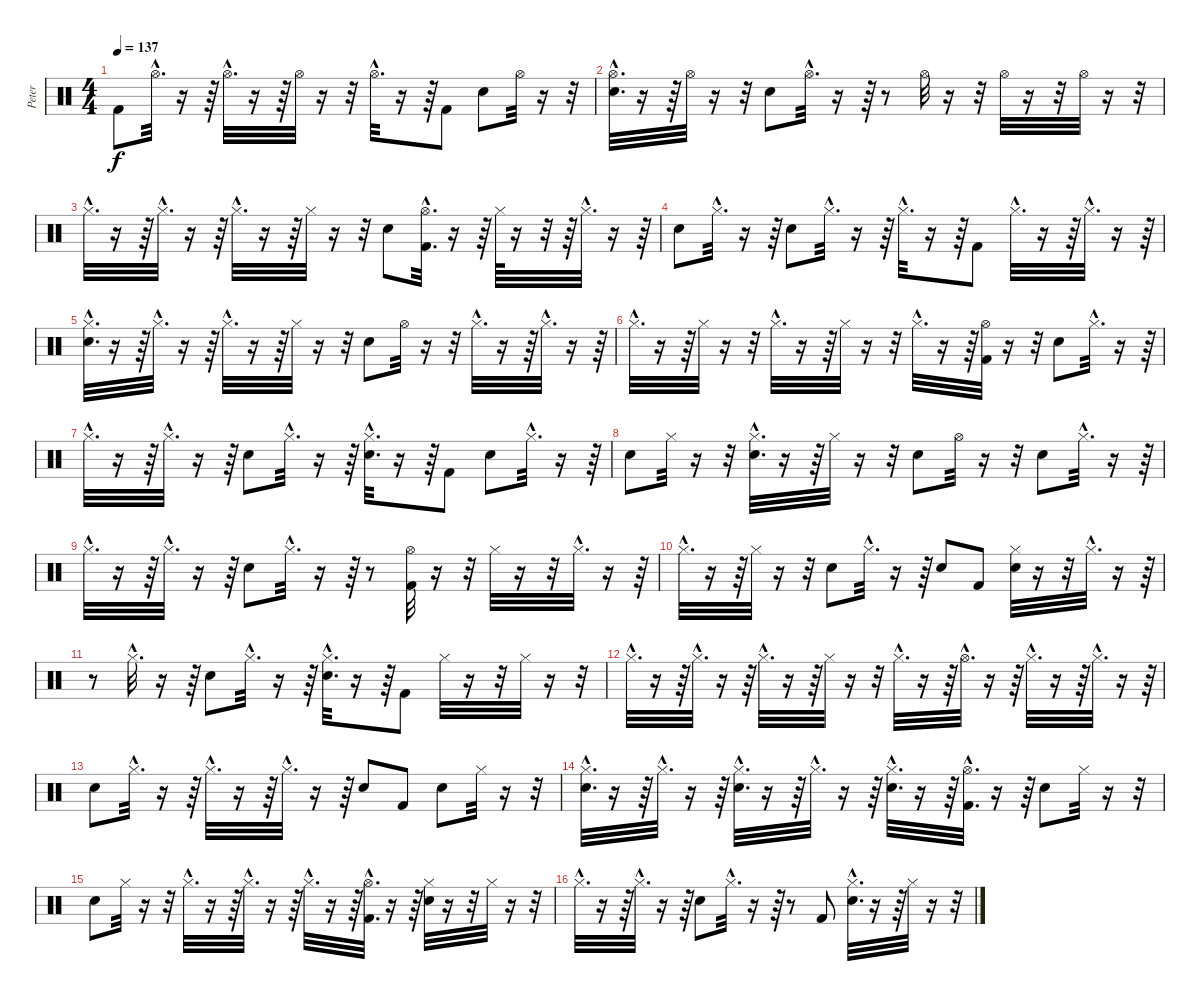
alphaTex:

\track ("Peter" "Peter") {instrument percussion}
\staff {score}
\articulation defaults
\ts (4 4)
\tempo 137
\clef neutral
\ks c "Kick (hit) 2".8{dy f} "Hi-Hat (open)"{hac}.32{d}
r.16 r.64 "Hi-Hat (open)"{hac}.32{d} r.16 r.64 "Hi-Hat (open)".32 r.16 r.32 "Hi-Hat (open)"{hac}.32{d} r.16 r.64 "Kick (hit) 2".8 "Electric Snare (hit)".8 "Hi-Hat (open)".32 r.16 r.32 |
("Electric Snare (hit)"{hac} "Hi-Hat (open)"{hac}).32{d} r.16 r.64 "Hi-Hat (open)".32 r.16 r.32 "Electric Snare (hit)".8 "Hi-Hat (open)"{hac}.32{d} r.16 r.64 r.8 "Hi-Hat (open)".32 r.16 r.32 "Hi-Hat (open)".32 r.16 r.32 "Hi-Hat (open)".32 r.16 r.32 |
"Hi-Hat (closed)"{hac}.32{d} r.16 r.64 "Hi-Hat (closed)"{hac}.32{d} r.16 r.64 "Hi-Hat (closed)"{hac}.32{d} r.16 r.64 "Hi-Hat (closed)".32 r.16 r.32 "Electric Snare (hit)".8 ("Kick (hit) 2"{hac} "Hi-Hat (open)"{hac}).32{d} r.16 r.64 "Hi-Hat (closed)".64 r.16 r.32 r.64 "Hi-Hat (closed)"{hac}.32{d} r.16 r.64 |
"Electric Snare (hit)".8 "Hi-Hat (closed)"{hac}.32{d} r.16 r.64 "Electric Snare (hit)".8 "Hi-Hat (closed)"{hac}.32{d} r.16 r.64 "Hi-Hat (closed)"{hac}.32{d} r.16 r.64 "Kick (hit) 2".8 "Hi-Hat (closed)"{hac}.32{d} r.16 r.64 "Hi-Hat (closed)"{hac}.32{d} r.16 r.64 |
("Electric Snare (hit)"{hac} "Hi-Hat (closed)"{hac}).32{d} r.16 r.64 "Hi-Hat (closed)"{hac}.32{d} r.16 r.64 "Hi-Hat (closed)"{hac}.32{d} r.16 r.64 "Hi-Hat (closed)".32 r.16 r.32 "Electric Snare (hit)".8 "Hi-Hat (open)".32 r.16 r.32 "Hi-Hat (closed)"{hac}.32{d} r.16 r.64 "Hi-Hat (closed)"{hac}.32{d} r.16 r.64 |
"Hi-Hat (closed)"{hac}.32{d} r.16 r.64 "Hi-Hat (closed)".32 r.16 r.32 "Hi-Hat (closed)"{hac}.32{d} r.16 r.64 "Hi-Hat (closed)".32 r.16 r.32 "Hi-Hat (closed)"{hac}.32{d} r.16 r.64 ("Kick (hit) 2" "Hi-Hat (open)").32 r.16 r.32 "Electric Snare (hit)".8 "Hi-Hat (closed)"{hac}.32{d} r.16 r.64 |
"Hi-Hat (closed)"{hac}.32{d} r.16 r.64 "Hi-Hat (closed)"{hac}.32{d} r.16 r.64 "Electric Snare (hit)".8 "Hi-Hat (closed)"{hac}.32{d} r.16 r.64 ("Electric Snare (hit)"{hac} "Hi-Hat (closed)"{hac}).32{d} r.16 r.64 "Kick (hit) 2".8 "Electric Snare (hit)".8 "Hi-Hat (closed)"{hac}.32{d} r.16 r.64 |
"Electric Snare (hit)".8 "Hi-Hat (closed)".32 r.16 r.32 ("Electric Snare (hit)"{hac} "Hi-Hat (closed)"{hac}).32{d} r.16 r.64 "Hi-Hat (closed)".32 r.16 r.32 "Electric Snare (hit)".8 "Hi-Hat (open)".32 r.16 r.32 "Electric Snare (hit)".8 "Hi-Hat (closed)"{hac}.32{d} r.16 r.64 |
"Hi-Hat (closed)"{hac}.32{d} r.16 r.64 "Hi-Hat (closed)"{hac}.32{d} r.16 r.64 "Electric Snare (hit)".8 "Hi-Hat (closed)"{hac}.32{d} r.16 r.64 r.8 ("Kick (hit) 2" "Hi-Hat (open)").32 r.16 r.32 "Hi-Hat (closed)".32 r.16 r.32 "Hi-Hat (closed)"{hac}.32{d} r.16 r.64 |
"Hi-Hat (closed)"{hac}.32{d} r.16 r.64 "Hi-Hat (closed)".32 r.16 r.32 "Electric Snare (hit)".8 "Hi-Hat (closed)"{hac}.32{d} r.16 r.64 "Electric Snare (hit)".8 "Kick (hit) 2".8 ("Electric Snare (hit)" "Hi-Hat (closed)").32 r.16 r.32 "Hi-Hat (closed)"{hac}.32{d} r.16 r.64 |
r.8 "Hi-Hat (closed)"{hac}.32{d} r.16 r.64 "Electric Snare (hit)".8 "Hi-Hat (closed)"{hac}.32{d} r.16 r.64 ("Electric Snare (hit)"{hac} "Hi-Hat (closed)"{hac}).32{d} r.16 r.64 "Kick (hit) 2".8 "Hi-Hat (closed)".32 r.16 r.32 "Hi-Hat (closed)".32 r.16 r.32 |
"Hi-Hat (closed)"{hac}.32{d} r.16 r.64 "Hi-Hat (closed)"{hac}.32{d} r.16 r.64 "Hi-Hat (closed)"{hac}.32{d} r.16 r.64 "Hi-Hat (closed)".32 r.16 r.32 "Hi-Hat (closed)"{hac}.32{d} r.16 r.64 "Hi-Hat (open)"{hac}.32{d} r.16 r.64 "Hi-Hat (closed)"{hac}.32{d} r.16 r.64 "Hi-Hat (closed)"{hac}.32{d} r.16 r.64 |
"Electric Snare (hit)".8 "Hi-Hat (closed)"{hac}.32{d} r.16 r.64 "Hi-Hat (closed)"{hac}.32{d} r.16 r.64 "Hi-Hat (closed)"{hac}.32{d} r.16 r.64 "Electric Snare (hit)".8 "Kick (hit) 2".8 "Electric Snare (hit)".8 "Hi-Hat (closed)".32 r.16 r.32 |
("Electric Snare (hit)"{hac} "Hi-Hat (closed)"{hac}).32{d} r.16 r.64 "Hi-Hat (closed)"{hac}.32{d} r.16 r.64 ("Electric Snare (hit)"{hac} "Hi-Hat (closed)"{hac}).32{d} r.16 r.64 "Hi-Hat (closed)"{hac}.32{d} r.16 r.64 ("Electric Snare (hit)"{hac} "Hi-Hat (closed)"{hac}).32{d} r.16 r.64 ("Kick (hit) 2"{hac} "Hi-Hat (open)"{hac}).32{d} r.16 r.64 "Electric Snare (hit)".8 "Hi-Hat (closed)".32 r.16 r.32 |
"Electric Snare (hit)".8 "Hi-Hat (closed)".32 r.16 r.32 "Hi-Hat (closed)"{hac}.32{d} r.16 r.64 "Hi-Hat (closed)"{hac}.32{d} r.16 r.64 "Hi-Hat (closed)"{hac}.32{d} r.16 r.64 ("Kick (hit) 2"{hac} "Hi-Hat (open)"{hac}).32{d} r.16 r.64 ("Electric Snare (hit)" "Hi-Hat (closed)").32 r.16 r.32 "Hi-Hat (closed)".32 r.16 r.32 |
"Hi-Hat (closed)"{hac}.32{d} r.16 r.64 "Hi-Hat (closed)"{hac}.32{d} r.16 r.64 "Electric Snare (hit)".8 "Hi-Hat (closed)"{hac}.32{d} r.16 r.64 r.8 "Kick (hit) 2".8 ("Electric Snare (hit)"{hac} "Hi-Hat (closed)"{hac}).32{d} r.16 r.64 "Hi-Hat (closed)".32 r.16 r.32
